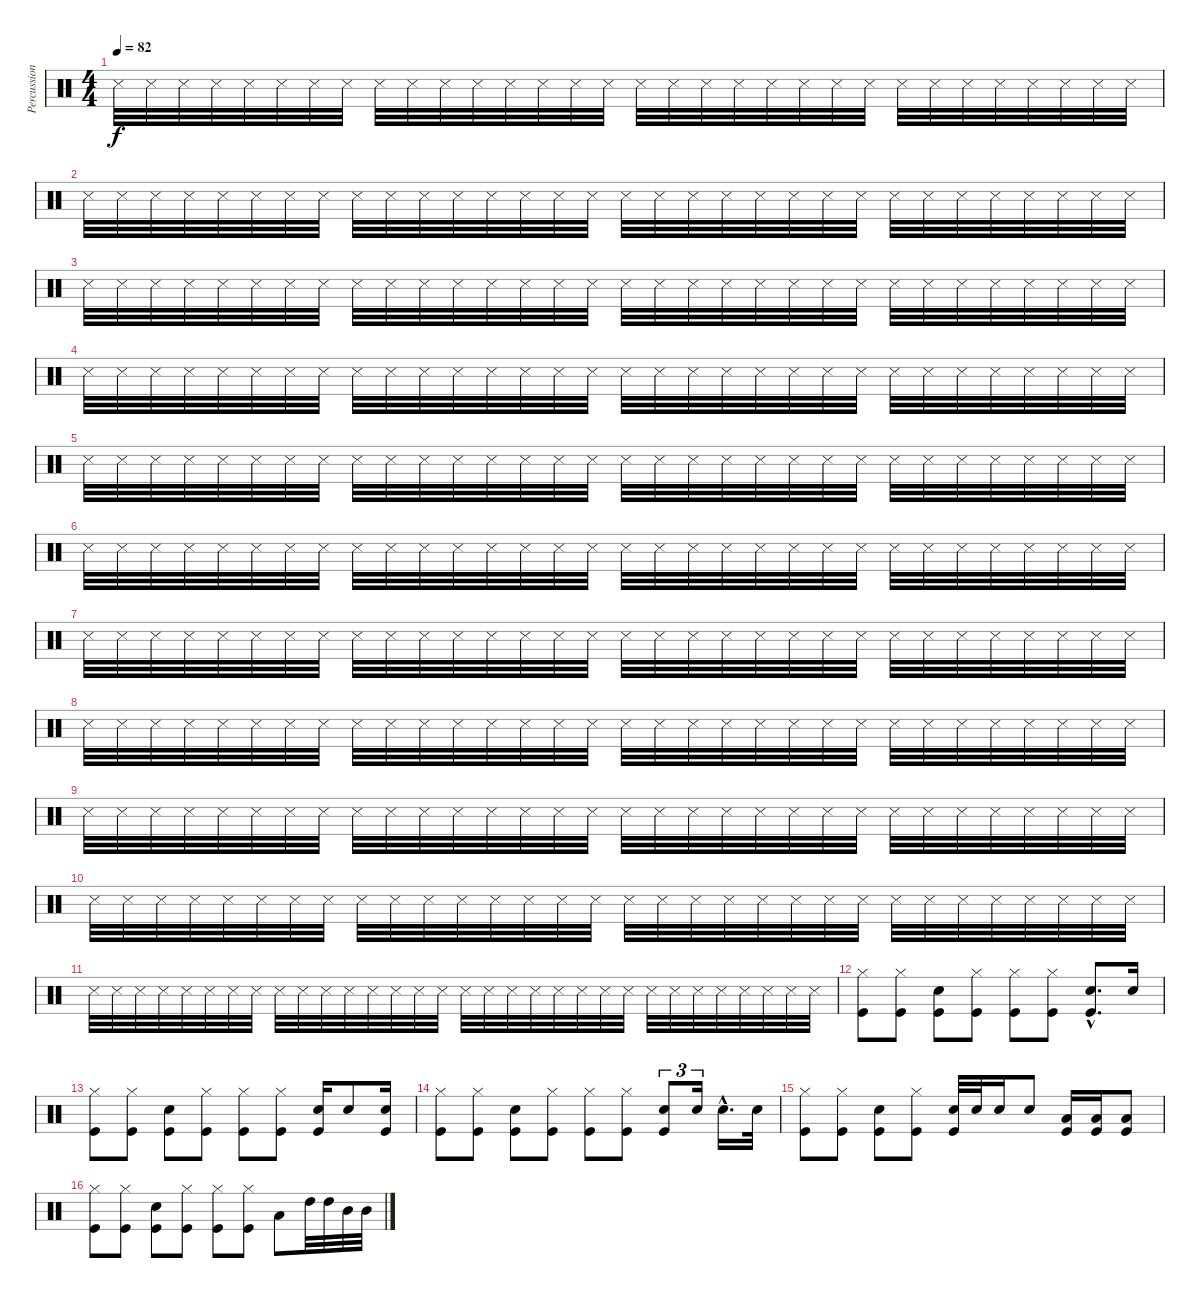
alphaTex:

\track ("Percussion" "Percussion") {instrument percussion}
\staff {score}
\articulation defaults
\ts (4 4)
\tempo 82
\clef neutral
\ks c "Snare (side stick) 3".32{dy f} "Snare (side stick) 3".32 "Snare (side stick) 3".32 "Snare (side stick) 3".32 "Snare (side stick) 3".32 "Snare (side stick) 3".32 "Snare (side stick) 3".32 "Snare (side stick) 3".32 "Snare (side stick) 3".32 "Snare (side stick) 3".32 "Snare (side stick) 3".32 "Snare (side stick) 3".32 "Snare (side stick) 3".32 "Snare (side stick) 3".32 "Snare (side stick) 3".32 "Snare (side stick) 3".32 "Snare (side stick) 3".32 "Snare (side stick) 3".32 "Snare (side stick) 3".32 "Snare (side stick) 3".32 "Snare (side stick) 3".32 "Snare (side stick) 3".32 "Snare (side stick) 3".32 "Snare (side stick) 3".32 "Snare (side stick) 3".32 "Snare (side stick) 3".32 "Snare (side stick) 3".32 "Snare (side stick) 3".32 "Snare (side stick) 3".32 "Snare (side stick) 3".32 "Snare (side stick) 3".32 "Snare (side stick) 3".32
|
"Snare (side stick) 3".32 "Snare (side stick) 3".32 "Snare (side stick) 3".32 "Snare (side stick) 3".32 "Snare (side stick) 3".32 "Snare (side stick) 3".32 "Snare (side stick) 3".32 "Snare (side stick) 3".32 "Snare (side stick) 3".32 "Snare (side stick) 3".32 "Snare (side stick) 3".32 "Snare (side stick) 3".32 "Snare (side stick) 3".32 "Snare (side stick) 3".32 "Snare (side stick) 3".32 "Snare (side stick) 3".32 "Snare (side stick) 3".32 "Snare (side stick) 3".32 "Snare (side stick) 3".32 "Snare (side stick) 3".32 "Snare (side stick) 3".32 "Snare (side stick) 3".32 "Snare (side stick) 3".32 "Snare (side stick) 3".32 "Snare (side stick) 3".32 "Snare (side stick) 3".32 "Snare (side stick) 3".32 "Snare (side stick) 3".32 "Snare (side stick) 3".32 "Snare (side stick) 3".32 "Snare (side stick) 3".32 "Snare (side stick) 3".32 |
"Snare (side stick) 3".32 "Snare (side stick) 3".32 "Snare (side stick) 3".32 "Snare (side stick) 3".32 "Snare (side stick) 3".32 "Snare (side stick) 3".32 "Snare (side stick) 3".32 "Snare (side stick) 3".32 "Snare (side stick) 3".32 "Snare (side stick) 3".32 "Snare (side stick) 3".32 "Snare (side stick) 3".32 "Snare (side stick) 3".32 "Snare (side stick) 3".32 "Snare (side stick) 3".32 "Snare (side stick) 3".32 "Snare (side stick) 3".32 "Snare (side stick) 3".32 "Snare (side stick) 3".32 "Snare (side stick) 3".32 "Snare (side stick) 3".32 "Snare (side stick) 3".32 "Snare (side stick) 3".32 "Snare (side stick) 3".32 "Snare (side stick) 3".32 "Snare (side stick) 3".32 "Snare (side stick) 3".32 "Snare (side stick) 3".32 "Snare (side stick) 3".32 "Snare (side stick) 3".32 "Snare (side stick) 3".32 "Snare (side stick) 3".32 |
"Snare (side stick) 3".32 "Snare (side stick) 3".32 "Snare (side stick) 3".32 "Snare (side stick) 3".32 "Snare (side stick) 3".32 "Snare (side stick) 3".32 "Snare (side stick) 3".32 "Snare (side stick) 3".32 "Snare (side stick) 3".32 "Snare (side stick) 3".32 "Snare (side stick) 3".32 "Snare (side stick) 3".32 "Snare (side stick) 3".32 "Snare (side stick) 3".32 "Snare (side stick) 3".32 "Snare (side stick) 3".32 "Snare (side stick) 3".32 "Snare (side stick) 3".32 "Snare (side stick) 3".32 "Snare (side stick) 3".32 "Snare (side stick) 3".32 "Snare (side stick) 3".32 "Snare (side stick) 3".32 "Snare (side stick) 3".32 "Snare (side stick) 3".32 "Snare (side stick) 3".32 "Snare (side stick) 3".32 "Snare (side stick) 3".32 "Snare (side stick) 3".32 "Snare (side stick) 3".32 "Snare (side stick) 3".32 "Snare (side stick) 3".32 |
"Snare (side stick) 3".32 "Snare (side stick) 3".32 "Snare (side stick) 3".32 "Snare (side stick) 3".32 "Snare (side stick) 3".32 "Snare (side stick) 3".32 "Snare (side stick) 3".32 "Snare (side stick) 3".32 "Snare (side stick) 3".32 "Snare (side stick) 3".32 "Snare (side stick) 3".32 "Snare (side stick) 3".32 "Snare (side stick) 3".32 "Snare (side stick) 3".32 "Snare (side stick) 3".32 "Snare (side stick) 3".32 "Snare (side stick) 3".32 "Snare (side stick) 3".32 "Snare (side stick) 3".32 "Snare (side stick) 3".32 "Snare (side stick) 3".32 "Snare (side stick) 3".32 "Snare (side stick) 3".32 "Snare (side stick) 3".32 "Snare (side stick) 3".32 "Snare (side stick) 3".32 "Snare (side stick) 3".32 "Snare (side stick) 3".32 "Snare (side stick) 3".32 "Snare (side stick) 3".32 "Snare (side stick) 3".32 "Snare (side stick) 3".32 |
"Snare (side stick) 3".32 "Snare (side stick) 3".32 "Snare (side stick) 3".32 "Snare (side stick) 3".32 "Snare (side stick) 3".32 "Snare (side stick) 3".32 "Snare (side stick) 3".32 "Snare (side stick) 3".32 "Snare (side stick) 3".32 "Snare (side stick) 3".32 "Snare (side stick) 3".32 "Snare (side stick) 3".32 "Snare (side stick) 3".32 "Snare (side stick) 3".32 "Snare (side stick) 3".32 "Snare (side stick) 3".32 "Snare (side stick) 3".32 "Snare (side stick) 3".32 "Snare (side stick) 3".32 "Snare (side stick) 3".32 "Snare (side stick) 3".32 "Snare (side stick) 3".32 "Snare (side stick) 3".32 "Snare (side stick) 3".32 "Snare (side stick) 3".32 "Snare (side stick) 3".32 "Snare (side stick) 3".32 "Snare (side stick) 3".32 "Snare (side stick) 3".32 "Snare (side stick) 3".32 "Snare (side stick) 3".32 "Snare (side stick) 3".32 |
"Snare (side stick) 3".32 "Snare (side stick) 3".32 "Snare (side stick) 3".32 "Snare (side stick) 3".32 "Snare (side stick) 3".32 "Snare (side stick) 3".32 "Snare (side stick) 3".32 "Snare (side stick) 3".32 "Snare (side stick) 3".32 "Snare (side stick) 3".32 "Snare (side stick) 3".32 "Snare (side stick) 3".32 "Snare (side stick) 3".32 "Snare (side stick) 3".32 "Snare (side stick) 3".32 "Snare (side stick) 3".32 "Snare (side stick) 3".32 "Snare (side stick) 3".32 "Snare (side stick) 3".32 "Snare (side stick) 3".32 "Snare (side stick) 3".32 "Snare (side stick) 3".32 "Snare (side stick) 3".32 "Snare (side stick) 3".32 "Snare (side stick) 3".32 "Snare (side stick) 3".32 "Snare (side stick) 3".32 "Snare (side stick) 3".32 "Snare (side stick) 3".32 "Snare (side stick) 3".32 "Snare (side stick) 3".32 "Snare (side stick) 3".32 |
"Snare (side stick) 3".32 "Snare (side stick) 3".32 "Snare (side stick) 3".32 "Snare (side stick) 3".32 "Snare (side stick) 3".32 "Snare (side stick) 3".32 "Snare (side stick) 3".32 "Snare (side stick) 3".32 "Snare (side stick) 3".32 "Snare (side stick) 3".32 "Snare (side stick) 3".32 "Snare (side stick) 3".32 "Snare (side stick) 3".32 "Snare (side stick) 3".32 "Snare (side stick) 3".32 "Snare (side stick) 3".32 "Snare (side stick) 3".32 "Snare (side stick) 3".32 "Snare (side stick) 3".32 "Snare (side stick) 3".32 "Snare (side stick) 3".32 "Snare (side stick) 3".32 "Snare (side stick) 3".32 "Snare (side stick) 3".32 "Snare (side stick) 3".32 "Snare (side stick) 3".32 "Snare (side stick) 3".32 "Snare (side stick) 3".32 "Snare (side stick) 3".32 "Snare (side stick) 3".32 "Snare (side stick) 3".32 "Snare (side stick) 3".32 |
"Snare (side stick) 3".32 "Snare (side stick) 3".32 "Snare (side stick) 3".32 "Snare (side stick) 3".32 "Snare (side stick) 3".32 "Snare (side stick) 3".32 "Snare (side stick) 3".32 "Snare (side stick) 3".32 "Snare (side stick) 3".32 "Snare (side stick) 3".32 "Snare (side stick) 3".32 "Snare (side stick) 3".32 "Snare (side stick) 3".32 "Snare (side stick) 3".32 "Snare (side stick) 3".32 "Snare (side stick) 3".32 "Snare (side stick) 3".32 "Snare (side stick) 3".32 "Snare (side stick) 3".32 "Snare (side stick) 3".32 "Snare (side stick) 3".32 "Snare (side stick) 3".32 "Snare (side stick) 3".32 "Snare (side stick) 3".32 "Snare (side stick) 3".32 "Snare (side stick) 3".32 "Snare (side stick) 3".32 "Snare (side stick) 3".32 "Snare (side stick) 3".32 "Snare (side stick) 3".32 "Snare (side stick) 3".32 "Snare (side stick) 3".32 |
"Snare (side stick) 3".32 "Snare (side stick) 3".32 "Snare (side stick) 3".32 "Snare (side stick) 3".32 "Snare (side stick) 3".32 "Snare (side stick) 3".32 "Snare (side stick) 3".32 "Snare (side stick) 3".32 "Snare (side stick) 3".32 "Snare (side stick) 3".32 "Snare (side stick) 3".32 "Snare (side stick) 3".32 "Snare (side stick) 3".32 "Snare (side stick) 3".32 "Snare (side stick) 3".32 "Snare (side stick) 3".32 "Snare (side stick) 3".32 "Snare (side stick) 3".32 "Snare (side stick) 3".32 "Snare (side stick) 3".32 "Snare (side stick) 3".32 "Snare (side stick) 3".32 "Snare (side stick) 3".32 "Snare (side stick) 3".32 "Snare (side stick) 3".32 "Snare (side stick) 3".32 "Snare (side stick) 3".32 "Snare (side stick) 3".32 "Snare (side stick) 3".32 "Snare (side stick) 3".32 "Snare (side stick) 3".32 "Snare (side stick) 3".32 |
"Snare (side stick) 3".32 "Snare (side stick) 3".32 "Snare (side stick) 3".32 "Snare (side stick) 3".32 "Snare (side stick) 3".32 "Snare (side stick) 3".32 "Snare (side stick) 3".32 "Snare (side stick) 3".32 "Snare (side stick) 3".32 "Snare (side stick) 3".32 "Snare (side stick) 3".32 "Snare (side stick) 3".32 "Snare (side stick) 3".32 "Snare (side stick) 3".32 "Snare (side stick) 3".32 "Snare (side stick) 3".32 "Snare (side stick) 3".32 "Snare (side stick) 3".32 "Snare (side stick) 3".32 "Snare (side stick) 3".32 "Snare (side stick) 3".32 "Snare (side stick) 3".32 "Snare (side stick) 3".32 "Snare (side stick) 3".32 "Snare (side stick) 3".32{volume 16} "Snare (side stick) 3".32 "Snare (side stick) 3".32 "Snare (side stick) 3".32 "Snare (side stick) 3".32 "Snare (side stick) 3".32 "Snare (side stick) 3".32 "Snare (side stick) 3".32 |
("Hi-Hat (closed)" "Kick (hit)").8 ("Hi-Hat (closed)" "Kick (hit)").8 ("Snare (hit) 2" "Kick (hit)").8 ("Hi-Hat (closed)" "Kick (hit)").8 ("Hi-Hat (closed)" "Kick (hit)").8 ("Hi-Hat (closed)" "Kick (hit)").8 ("Snare (hit) 2"{hac} "Kick (hit)"{hac}).8{d} "Snare (hit) 2".16 |
("Hi-Hat (closed)" "Kick (hit)").8 ("Hi-Hat (closed)" "Kick (hit)").8 ("Snare (hit) 2" "Kick (hit)").8 ("Hi-Hat (closed)" "Kick (hit)").8 ("Hi-Hat (closed)" "Kick (hit)").8 ("Hi-Hat (closed)" "Kick (hit)").8 ("Snare (hit) 2" "Kick (hit)").16 "Snare (hit) 2".8 ("Snare (hit) 2" "Kick (hit)").16 |
("Hi-Hat (closed)" "Kick (hit)").8 ("Hi-Hat (closed)" "Kick (hit)").8 ("Snare (hit) 2" "Kick (hit)").8 ("Hi-Hat (closed)" "Kick (hit)").8 ("Hi-Hat (closed)" "Kick (hit)").8 ("Hi-Hat (closed)" "Kick (hit)").8 ("Snare (hit) 2" "Kick (hit)").8{tu (3 2)} "Snare (hit) 2".16{tu (3 2)} "Snare (hit) 2"{hac}.16{d} "Snare (hit) 2".32 |
("Hi-Hat (closed)" "Kick (hit)").8 ("Hi-Hat (closed)" "Kick (hit)").8 ("Snare (hit) 2" "Kick (hit)").8 ("Hi-Hat (closed)" "Kick (hit)").8 ("Snare (hit) 2" "Kick (hit)").32 "Snare (hit) 2".32 "Snare (hit) 2".16 "Snare (hit) 2".8 ("Low Tom (hit)" "Kick (hit)").16 ("Low Tom (hit)" "Kick (hit)").16 ("Low Tom (hit)" "Kick (hit)").8 |
("Hi-Hat (closed)" "Kick (hit)").8 ("Hi-Hat (closed)" "Kick (hit)").8 ("Snare (hit) 2" "Kick (hit)").8 ("Hi-Hat (closed)" "Kick (hit)").8 ("Hi-Hat (closed)" "Kick (hit)").8 ("Hi-Hat (closed)" "Kick (hit)").8 "Low Tom (hit)".8 "High Tom (hit)".32 "High Tom (hit)".32 "Mid Tom (hit)".32 "Mid Tom (hit)".32
